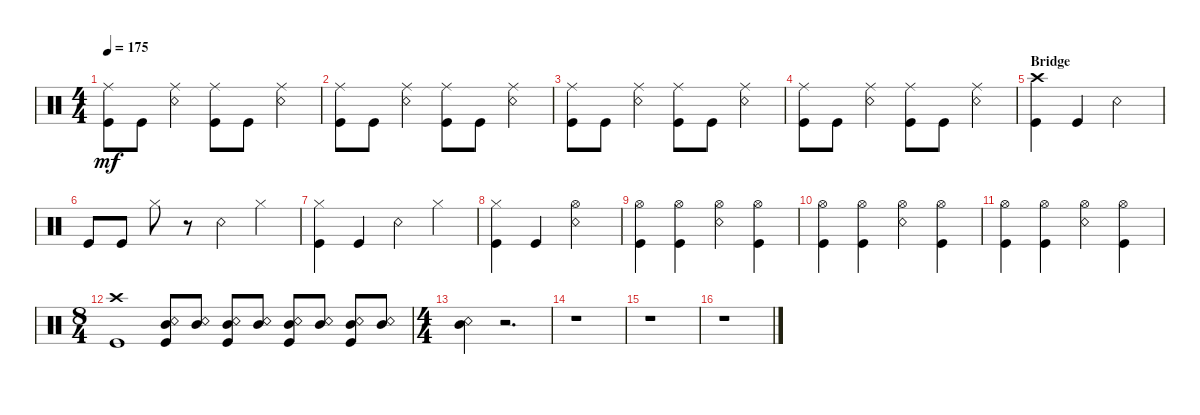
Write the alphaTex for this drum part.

\defaultSystemsLayout 4
\bracketExtendMode groupsimilarinstruments
\singleTrackTrackNamePolicy hidden
\multiTrackTrackNamePolicy hidden
\firstSystemTrackNameOrientation horizontal
\otherSystemsTrackNameOrientation horizontal
\track ("Drumkit" "Drums") {solo instrument percussion}
\staff {score}
\articulation defaults
\ts (4 4)
\tempo 175
\clef neutral
\ks c
("Kick (hit)" "Ride (middle)").8{dy mf} "Kick (hit)".8 ("Snare (rim shot)" "Ride (middle)").4 ("Kick (hit)" "Ride (middle)").8 "Kick (hit)".8 ("Snare (rim shot)" "Ride (middle)").4 |
("Kick (hit)" "Ride (middle)").8 "Kick (hit)".8 ("Snare (rim shot)" "Ride (middle)").4 ("Kick (hit)" "Ride (middle)").8 "Kick (hit)".8 ("Snare (rim shot)" "Ride (middle)").4 |
("Kick (hit)" "Ride (middle)").8 "Kick (hit)".8 ("Snare (rim shot)" "Ride (middle)").4 ("Kick (hit)" "Ride (middle)").8 "Kick (hit)".8 ("Snare (rim shot)" "Ride (middle)").4 |
("Kick (hit)" "Ride (middle)").8 "Kick (hit)".8 ("Snare (rim shot)" "Ride (middle)").4 ("Kick (hit)" "Ride (middle)").8 "Kick (hit)".8 ("Snare (rim shot)" "Ride (middle)").4 |
\section ("" "Bridge")
("Kick (hit)" "Crash high (hit)").4 "Kick (hit)".4 "Snare (rim shot)".2 |
"Kick (hit)".8 "Kick (hit)".8 "Hi-Hat (closed)".8 r.8 "Snare (rim shot)".4 "Hi-Hat (closed)".4 |
("Hi-Hat (closed)" "Kick (hit)").4 "Kick (hit)".4 "Snare (rim shot)".4 "Hi-Hat (closed)".4 |
("Hi-Hat (closed)" "Kick (hit)").4 "Kick (hit)".4 ("Snare (rim shot)" "Hi-Hat (open)").2 |
("Hi-Hat (open)" "Kick (hit)").4 ("Kick (hit)" "Hi-Hat (open)").4 ("Snare (rim shot)" "Hi-Hat (open)").4 ("Kick (hit)" "Hi-Hat (open)").4 |
("Hi-Hat (open)" "Kick (hit)").4 ("Kick (hit)" "Hi-Hat (open)").4 ("Snare (rim shot)" "Hi-Hat (open)").4 ("Kick (hit)" "Hi-Hat (open)").4 |
("Hi-Hat (open)" "Kick (hit)").4 ("Kick (hit)" "Hi-Hat (open)").4 ("Snare (rim shot)" "Hi-Hat (open)").4 ("Kick (hit)" "Hi-Hat (open)").4 |
\ts (8 4)
("Kick (hit)" "Crash high (hit)").1 ("Kick (hit)" "Mid Tom (hit)" "Snare (rim shot)").8 ("Snare (rim shot)" "Mid Tom (hit)").8 ("Kick (hit)" "Mid Tom (hit)" "Snare (rim shot)").8 ("Snare (rim shot)" "Mid Tom (hit)").8 ("Kick (hit)" "Mid Tom (hit)" "Snare (rim shot)").8 ("Snare (rim shot)" "Mid Tom (hit)").8 ("Kick (hit)" "Mid Tom (hit)" "Snare (rim shot)").8 ("Snare (rim shot)" "Mid Tom (hit)").8 |
\ts (4 4)
("Snare (rim shot)" "Mid Tom (hit)").4 r.2{d} |
r.1 |
r.1 |
r.1
